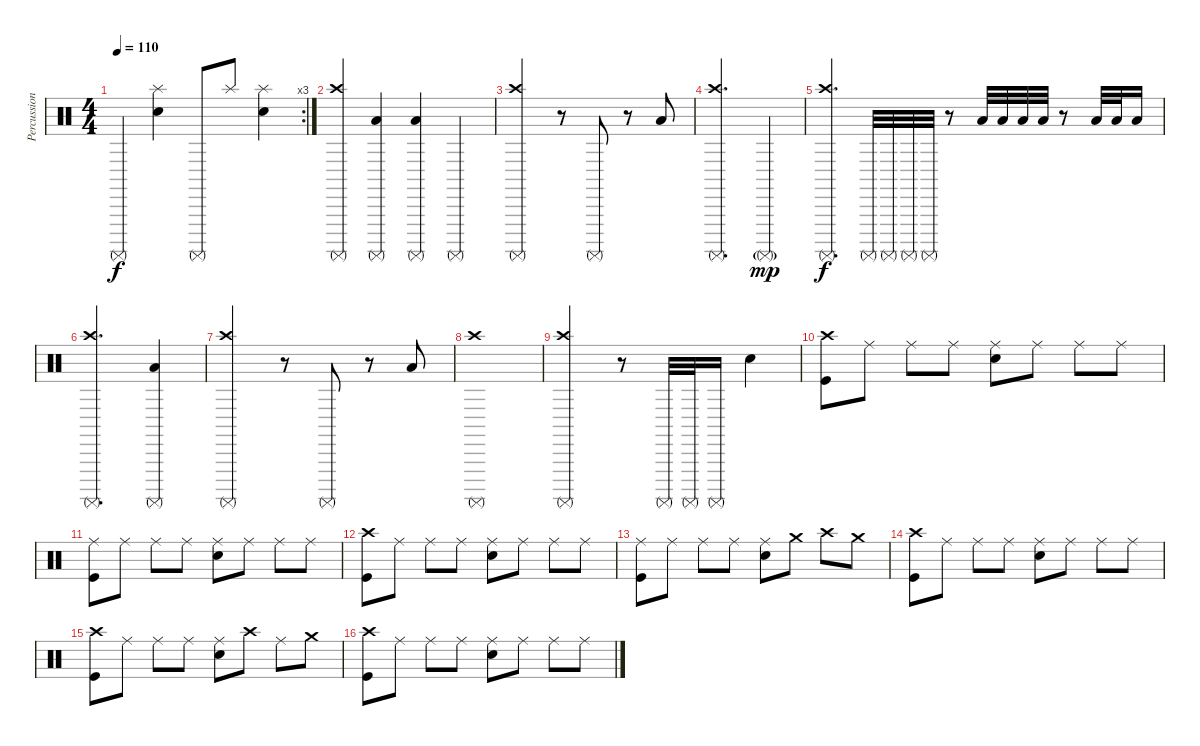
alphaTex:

\track ("Percussions" "Percussion") {instrument percussion}
\staff {score}
\articulation defaults
\rc 3
\ts (4 4)
\tempo 110
\clef neutral
\ks c "Surdo (mute)".4{dy f}
("Splash (hit)" "Snare (hit) 2").4 "Surdo (mute)".8 "Splash (hit)".8 ("Splash (hit)" "Snare (hit) 2").4 |
("Crash high (hit)" "Surdo (mute)").4 ("Surdo (mute)" "Low Floor Tom (hit)").4 ("Surdo (mute)" "Low Floor Tom (hit)").4 "Surdo (mute)".4 |
("Crash high (hit)" "Surdo (mute)").2 r.8 "Surdo (mute)".8 r.8 "Low Floor Tom (hit)".8 |
("Crash high (hit)" "Surdo (mute)").2{d} "Surdo (mute)"{g}.4{dy mp} |
("Crash high (hit)" "Surdo (mute)").4{d dy f} "Surdo (mute)".32 "Surdo (mute)".32 "Surdo (mute)".32 "Surdo (mute)".32 r.8 "Low Floor Tom (hit)".32 "Low Floor Tom (hit)".32 "Low Floor Tom (hit)".32 "Low Floor Tom (hit)".32 r.8 "Low Floor Tom (hit)".32 "Low Floor Tom (hit)".32 "Low Floor Tom (hit)".16 |
("Crash high (hit)" "Surdo (mute)").2{d} ("Surdo (mute)" "Low Floor Tom (hit)").4 |
("Crash high (hit)" "Surdo (mute)").2 r.8 "Surdo (mute)".8 r.8 "Low Floor Tom (hit)".8 |
("Crash high (hit)" "Surdo (mute)").1 |
("Crash high (hit)" "Surdo (mute)").2 r.8 "Surdo (mute)".32 "Surdo (mute)".32 "Surdo (mute)".16 "Snare (hit) 2".4 |
("Crash high (hit)" "Kick (hit)").8 "Ride (middle)".8 "Ride (middle)".8 "Ride (middle)".8 ("Ride (middle)" "Snare (hit) 2").8 "Ride (middle)".8 "Ride (middle)".8 "Ride (middle)".8 |
("Ride (middle)" "Kick (hit)").8 "Ride (middle)".8 "Ride (middle)".8 "Ride (middle)".8 ("Ride (middle)" "Snare (hit) 2").8 "Ride (middle)".8 "Ride (middle)".8 "Ride (middle)".8 |
("Crash high (hit)" "Kick (hit)").8 "Ride (middle)".8 "Ride (middle)".8 "Ride (middle)".8 ("Ride (middle)" "Snare (hit) 2").8 "Ride (middle)".8 "Ride (middle)".8 "Ride (middle)".8 |
("Ride (middle)" "Kick (hit)").8 "Ride (middle)".8 "Ride (middle)".8 "Ride (middle)".8 ("Ride (middle)" "Snare (hit) 2").8 "Crash medium (hit)".8 "Crash high (hit)".8 "Crash medium (hit)".8 |
("Crash high (hit)" "Kick (hit)").8 "Ride (middle)".8 "Ride (middle)".8 "Ride (middle)".8 ("Ride (middle)" "Snare (hit) 2").8 "Ride (middle)".8 "Ride (middle)".8 "Ride (middle)".8 |
("Crash high (hit)" "Kick (hit)").8 "Ride (middle)".8 "Ride (middle)".8 "Ride (middle)".8 ("Ride (middle)" "Snare (hit) 2").8 "Crash high (hit)".8 "Ride (middle)".8 "Crash medium (hit)".8 |
("Crash high (hit)" "Kick (hit)").8 "Ride (middle)".8 "Ride (middle)".8 "Ride (middle)".8 ("Ride (middle)" "Snare (hit) 2").8 "Ride (middle)".8 "Ride (middle)".8 "Ride (middle)".8
